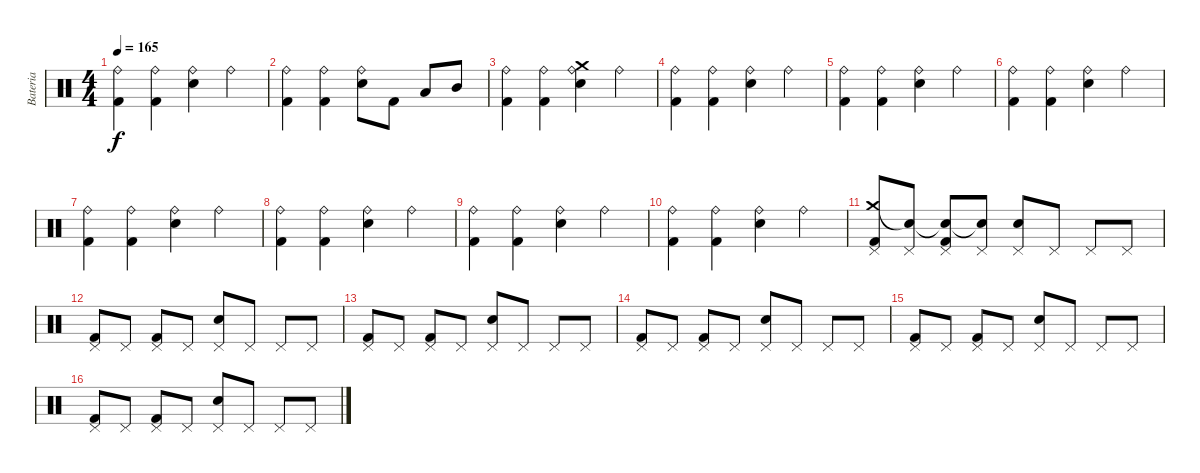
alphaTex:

\track ("Bateria" "Bateria") {instrument percussion}
\staff {score}
\articulation defaults
\ts (4 4)
\tempo 165
\clef neutral
\ks c
("Ride (bell)" "Kick (hit) 2").4{dy f} ("Ride (bell)" "Kick (hit) 2").4 ("Ride (bell)" "Electric Snare (hit)").4 "Ride (bell)".4 |
("Ride (bell)" "Kick (hit) 2").4 ("Ride (bell)" "Kick (hit) 2").4 ("Ride (bell)" "Electric Snare (hit)").8 "Kick (hit) 2".8 "Low Tom (hit)".8 "Mid Tom (hit)".8 |
("Ride (bell)" "Kick (hit) 2").4 ("Ride (bell)" "Kick (hit) 2").4 ("Crash medium (hit)" "Ride (bell)" "Electric Snare (hit)").4 "Ride (bell)".4 |
("Ride (bell)" "Kick (hit) 2").4 ("Ride (bell)" "Kick (hit) 2").4 ("Ride (bell)" "Electric Snare (hit)").4 "Ride (bell)".4 |
("Ride (bell)" "Kick (hit) 2").4 ("Ride (bell)" "Kick (hit) 2").4 ("Ride (bell)" "Electric Snare (hit)").4 "Ride (bell)".4 |
("Ride (bell)" "Kick (hit) 2").4 ("Ride (bell)" "Kick (hit) 2").4 ("Ride (bell)" "Electric Snare (hit)").4 "Ride (bell)".4 |
("Ride (bell)" "Kick (hit) 2").4 ("Ride (bell)" "Kick (hit) 2").4 ("Ride (bell)" "Electric Snare (hit)").4 "Ride (bell)".4 |
("Ride (bell)" "Kick (hit) 2").4 ("Ride (bell)" "Kick (hit) 2").4 ("Ride (bell)" "Electric Snare (hit)").4 "Ride (bell)".4 |
("Ride (bell)" "Kick (hit) 2").4 ("Ride (bell)" "Kick (hit) 2").4 ("Ride (bell)" "Electric Snare (hit)").4 "Ride (bell)".4 |
("Ride (bell)" "Kick (hit) 2").4 ("Ride (bell)" "Kick (hit) 2").4 ("Ride (bell)" "Electric Snare (hit)").4 "Ride (bell)".4 |
("Crash medium (hit)" "Pedal Hi-Hat (hit)" "Kick (hit) 2").8 ("Snare (hit)"{t} "Pedal Hi-Hat (hit)").8 ("Snare (hit)"{t} "Pedal Hi-Hat (hit)" "Kick (hit) 2").8 ("Snare (hit)"{t} "Pedal Hi-Hat (hit)").8 ("Pedal Hi-Hat (hit)" "Electric Snare (hit)").8 "Pedal Hi-Hat (hit)".8 "Pedal Hi-Hat (hit)".8 "Pedal Hi-Hat (hit)".8 |
("Pedal Hi-Hat (hit)" "Kick (hit) 2").8 "Pedal Hi-Hat (hit)".8 ("Pedal Hi-Hat (hit)" "Kick (hit) 2").8 "Pedal Hi-Hat (hit)".8 ("Pedal Hi-Hat (hit)" "Electric Snare (hit)").8 "Pedal Hi-Hat (hit)".8 "Pedal Hi-Hat (hit)".8 "Pedal Hi-Hat (hit)".8 |
("Pedal Hi-Hat (hit)" "Kick (hit) 2").8 "Pedal Hi-Hat (hit)".8 ("Pedal Hi-Hat (hit)" "Kick (hit) 2").8 "Pedal Hi-Hat (hit)".8 ("Pedal Hi-Hat (hit)" "Electric Snare (hit)").8 "Pedal Hi-Hat (hit)".8 "Pedal Hi-Hat (hit)".8 "Pedal Hi-Hat (hit)".8 |
("Pedal Hi-Hat (hit)" "Kick (hit) 2").8 "Pedal Hi-Hat (hit)".8 ("Pedal Hi-Hat (hit)" "Kick (hit) 2").8 "Pedal Hi-Hat (hit)".8 ("Pedal Hi-Hat (hit)" "Electric Snare (hit)").8 "Pedal Hi-Hat (hit)".8 "Pedal Hi-Hat (hit)".8 "Pedal Hi-Hat (hit)".8 |
("Pedal Hi-Hat (hit)" "Kick (hit) 2").8 "Pedal Hi-Hat (hit)".8 ("Pedal Hi-Hat (hit)" "Kick (hit) 2").8 "Pedal Hi-Hat (hit)".8 ("Pedal Hi-Hat (hit)" "Electric Snare (hit)").8 "Pedal Hi-Hat (hit)".8 "Pedal Hi-Hat (hit)".8 "Pedal Hi-Hat (hit)".8 |
("Pedal Hi-Hat (hit)" "Kick (hit) 2").8 "Pedal Hi-Hat (hit)".8 ("Pedal Hi-Hat (hit)" "Kick (hit) 2").8 "Pedal Hi-Hat (hit)".8 ("Pedal Hi-Hat (hit)" "Electric Snare (hit)").8 "Pedal Hi-Hat (hit)".8 "Pedal Hi-Hat (hit)".8 "Pedal Hi-Hat (hit)".8
